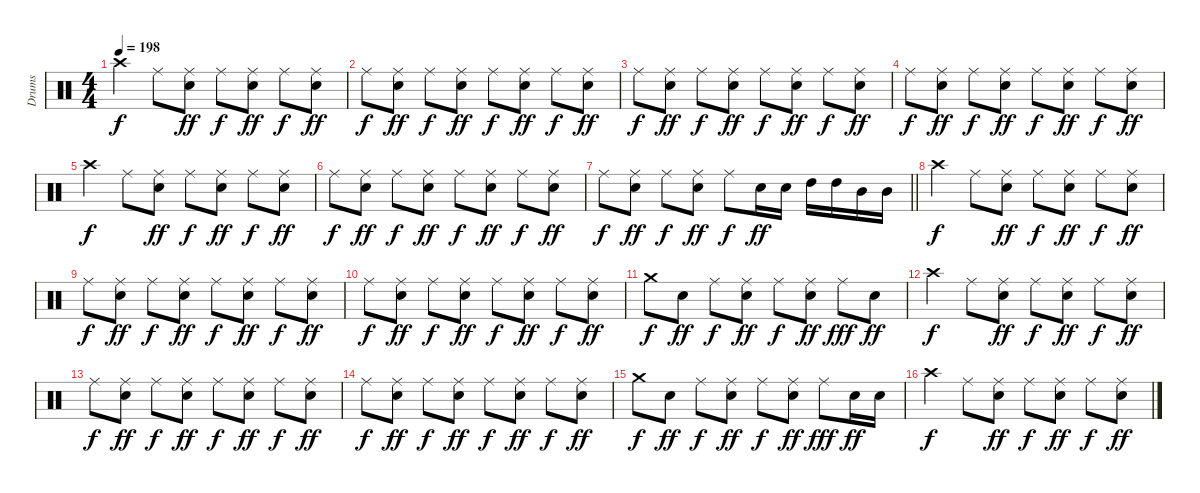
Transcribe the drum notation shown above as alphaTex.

\track ("Drums" "Drums") {instrument percussion}
\staff {score}
\articulation defaults
\ts (4 4)
\tempo 198
\clef neutral
\ks c "Crash high (hit)".4{dy f} "Ride (middle)".8
("Ride (middle)" "Snare (hit) 2").8{dy ff} "Ride (middle)".8{dy f} ("Ride (middle)" "Snare (hit) 2").8{dy ff} "Ride (middle)".8{dy f} ("Ride (middle)" "Snare (hit) 2").8{dy ff} |
"Ride (middle)".8{dy f} ("Ride (middle)" "Snare (hit) 2").8{dy ff} "Ride (middle)".8{dy f} ("Ride (middle)" "Snare (hit) 2").8{dy ff} "Ride (middle)".8{dy f} ("Ride (middle)" "Snare (hit) 2").8{dy ff} "Ride (middle)".8{dy f} ("Ride (middle)" "Snare (hit) 2").8{dy ff} |
"Ride (middle)".8{dy f} ("Ride (middle)" "Snare (hit) 2").8{dy ff} "Ride (middle)".8{dy f} ("Ride (middle)" "Snare (hit) 2").8{dy ff} "Ride (middle)".8{dy f} ("Ride (middle)" "Snare (hit) 2").8{dy ff} "Ride (middle)".8{dy f} ("Ride (middle)" "Snare (hit) 2").8{dy ff} |
"Ride (middle)".8{dy f} ("Ride (middle)" "Snare (hit) 2").8{dy ff} "Ride (middle)".8{dy f} ("Ride (middle)" "Snare (hit) 2").8{dy ff} "Ride (middle)".8{dy f} ("Ride (middle)" "Snare (hit) 2").8{dy ff} "Ride (middle)".8{dy f} ("Ride (middle)" "Snare (hit) 2").8{dy ff} |
"Crash high (hit)".4{dy f} "Ride (middle)".8 ("Ride (middle)" "Snare (hit) 2").8{dy ff} "Ride (middle)".8{dy f} ("Ride (middle)" "Snare (hit) 2").8{dy ff} "Ride (middle)".8{dy f} ("Ride (middle)" "Snare (hit) 2").8{dy ff} |
"Ride (middle)".8{dy f} ("Ride (middle)" "Snare (hit) 2").8{dy ff} "Ride (middle)".8{dy f} ("Ride (middle)" "Snare (hit) 2").8{dy ff} "Ride (middle)".8{dy f} ("Ride (middle)" "Snare (hit) 2").8{dy ff} "Ride (middle)".8{dy f} ("Ride (middle)" "Snare (hit) 2").8{dy ff} |
\barLineRight lightlight "Ride (middle)".8{dy f}
("Ride (middle)" "Snare (hit) 2").8{dy ff} "Ride (middle)".8{dy f} ("Ride (middle)" "Snare (hit) 2").8{dy ff} "Ride (middle)".8{dy f} "Snare (hit) 2".16{dy ff} "Snare (hit) 2".16 "High Tom (hit)".16 "High Tom (hit)".16 "Mid Tom (hit)".16 "Mid Tom (hit)".16 |
\section ("" "")
"Crash high (hit)".4{dy f} "Ride (middle)".8 ("Ride (middle)" "Snare (hit) 2").8{dy ff} "Ride (middle)".8{dy f} ("Ride (middle)" "Snare (hit) 2").8{dy ff} "Ride (middle)".8{dy f} ("Ride (middle)" "Snare (hit) 2").8{dy ff} |
"Ride (middle)".8{dy f} ("Ride (middle)" "Snare (hit) 2").8{dy ff} "Ride (middle)".8{dy f} ("Ride (middle)" "Snare (hit) 2").8{dy ff} "Ride (middle)".8{dy f} ("Ride (middle)" "Snare (hit) 2").8{dy ff} "Ride (middle)".8{dy f} ("Ride (middle)" "Snare (hit) 2").8{dy ff} |
"Ride (middle)".8{dy f} ("Ride (middle)" "Snare (hit) 2").8{dy ff} "Ride (middle)".8{dy f} ("Ride (middle)" "Snare (hit) 2").8{dy ff} "Ride (middle)".8{dy f} ("Ride (middle)" "Snare (hit) 2").8{dy ff} "Ride (middle)".8{dy f} ("Ride (middle)" "Snare (hit) 2").8{dy ff} |
"Crash medium (hit)".8{dy f} "Snare (hit) 2".8{dy ff} "Ride (middle)".8{dy f} ("Ride (middle)" "Snare (hit) 2").8{dy ff} "Ride (middle)".8{dy f} ("Ride (middle)" "Snare (hit) 2").8{dy ff} "Ride (middle)".8{dy fff} "Snare (hit) 2".8{dy ff} |
"Crash high (hit)".4{dy f} "Ride (middle)".8 ("Ride (middle)" "Snare (hit) 2").8{dy ff} "Ride (middle)".8{dy f} ("Ride (middle)" "Snare (hit) 2").8{dy ff} "Ride (middle)".8{dy f} ("Ride (middle)" "Snare (hit) 2").8{dy ff} |
"Ride (middle)".8{dy f} ("Ride (middle)" "Snare (hit) 2").8{dy ff} "Ride (middle)".8{dy f} ("Ride (middle)" "Snare (hit) 2").8{dy ff} "Ride (middle)".8{dy f} ("Ride (middle)" "Snare (hit) 2").8{dy ff} "Ride (middle)".8{dy f} ("Ride (middle)" "Snare (hit) 2").8{dy ff} |
"Ride (middle)".8{dy f} ("Ride (middle)" "Snare (hit) 2").8{dy ff} "Ride (middle)".8{dy f} ("Ride (middle)" "Snare (hit) 2").8{dy ff} "Ride (middle)".8{dy f} ("Ride (middle)" "Snare (hit) 2").8{dy ff} "Ride (middle)".8{dy f} ("Ride (middle)" "Snare (hit) 2").8{dy ff} |
"Crash medium (hit)".8{dy f} "Snare (hit) 2".8{dy ff} "Ride (middle)".8{dy f} ("Ride (middle)" "Snare (hit) 2").8{dy ff} "Ride (middle)".8{dy f} ("Ride (middle)" "Snare (hit) 2").8{dy ff} "Ride (middle)".8{dy fff} "Snare (hit) 2".16{dy ff} "Snare (hit) 2".16 |
"Crash high (hit)".4{dy f} "Ride (middle)".8 ("Ride (middle)" "Snare (hit) 2").8{dy ff} "Ride (middle)".8{dy f} ("Ride (middle)" "Snare (hit) 2").8{dy ff} "Ride (middle)".8{dy f} ("Ride (middle)" "Snare (hit) 2").8{dy ff}
